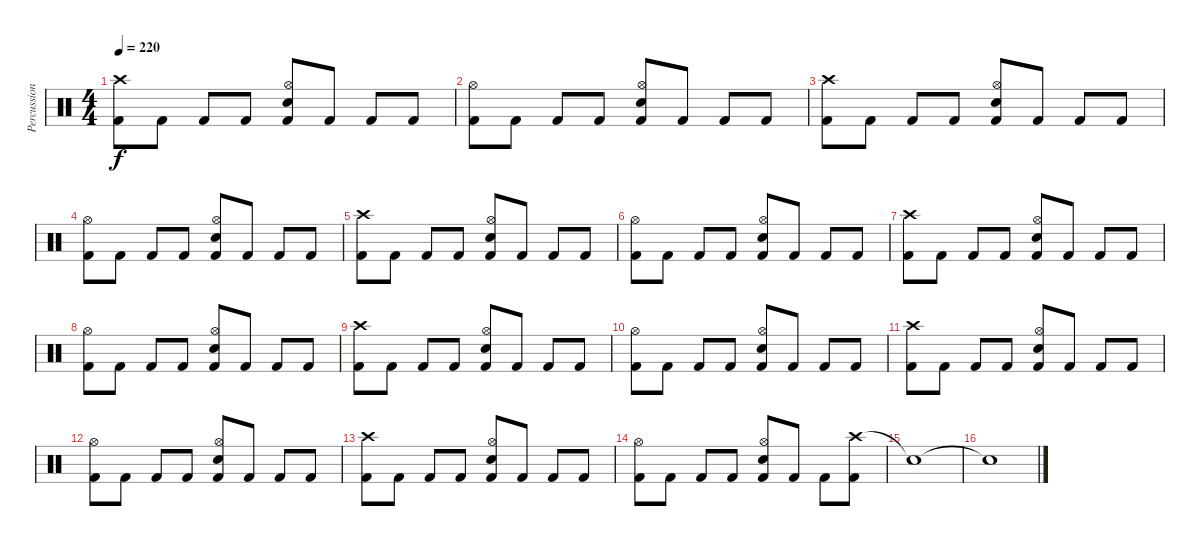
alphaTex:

\track ("Percussion" "Percussion") {instrument percussion}
\staff {score}
\articulation defaults
\ts (4 4)
\tempo 220
\clef neutral
\ks c
("Crash high (hit)" "Kick (hit) 2").8{dy f} "Kick (hit) 2".8 "Kick (hit) 2".8 "Kick (hit) 2".8 ("Hi-Hat (open)" "Electric Snare (hit)" "Kick (hit) 2").8 "Kick (hit) 2".8 "Kick (hit) 2".8 "Kick (hit) 2".8 |
("Hi-Hat (open)" "Kick (hit) 2").8 "Kick (hit) 2".8 "Kick (hit) 2".8 "Kick (hit) 2".8 ("Hi-Hat (open)" "Electric Snare (hit)" "Kick (hit) 2").8 "Kick (hit) 2".8 "Kick (hit) 2".8 "Kick (hit) 2".8 |
("Crash high (hit)" "Kick (hit) 2").8 "Kick (hit) 2".8 "Kick (hit) 2".8 "Kick (hit) 2".8 ("Hi-Hat (open)" "Electric Snare (hit)" "Kick (hit) 2").8 "Kick (hit) 2".8 "Kick (hit) 2".8 "Kick (hit) 2".8 |
("Hi-Hat (open)" "Kick (hit) 2").8 "Kick (hit) 2".8 "Kick (hit) 2".8 "Kick (hit) 2".8 ("Hi-Hat (open)" "Electric Snare (hit)" "Kick (hit) 2").8 "Kick (hit) 2".8 "Kick (hit) 2".8 "Kick (hit) 2".8 |
("Crash high (hit)" "Kick (hit) 2").8 "Kick (hit) 2".8 "Kick (hit) 2".8 "Kick (hit) 2".8 ("Hi-Hat (open)" "Electric Snare (hit)" "Kick (hit) 2").8 "Kick (hit) 2".8 "Kick (hit) 2".8 "Kick (hit) 2".8 |
("Hi-Hat (open)" "Kick (hit) 2").8 "Kick (hit) 2".8 "Kick (hit) 2".8 "Kick (hit) 2".8 ("Hi-Hat (open)" "Electric Snare (hit)" "Kick (hit) 2").8 "Kick (hit) 2".8 "Kick (hit) 2".8 "Kick (hit) 2".8 |
("Crash high (hit)" "Kick (hit) 2").8 "Kick (hit) 2".8 "Kick (hit) 2".8 "Kick (hit) 2".8 ("Hi-Hat (open)" "Electric Snare (hit)" "Kick (hit) 2").8 "Kick (hit) 2".8 "Kick (hit) 2".8 "Kick (hit) 2".8 |
("Hi-Hat (open)" "Kick (hit) 2").8 "Kick (hit) 2".8 "Kick (hit) 2".8 "Kick (hit) 2".8 ("Hi-Hat (open)" "Electric Snare (hit)" "Kick (hit) 2").8 "Kick (hit) 2".8 "Kick (hit) 2".8 "Kick (hit) 2".8 |
("Crash high (hit)" "Kick (hit) 2").8 "Kick (hit) 2".8 "Kick (hit) 2".8 "Kick (hit) 2".8 ("Hi-Hat (open)" "Electric Snare (hit)" "Kick (hit) 2").8 "Kick (hit) 2".8 "Kick (hit) 2".8 "Kick (hit) 2".8 |
("Hi-Hat (open)" "Kick (hit) 2").8 "Kick (hit) 2".8 "Kick (hit) 2".8 "Kick (hit) 2".8 ("Hi-Hat (open)" "Electric Snare (hit)" "Kick (hit) 2").8 "Kick (hit) 2".8 "Kick (hit) 2".8 "Kick (hit) 2".8 |
("Crash high (hit)" "Kick (hit) 2").8 "Kick (hit) 2".8 "Kick (hit) 2".8 "Kick (hit) 2".8 ("Hi-Hat (open)" "Electric Snare (hit)" "Kick (hit) 2").8 "Kick (hit) 2".8 "Kick (hit) 2".8 "Kick (hit) 2".8 |
("Hi-Hat (open)" "Kick (hit) 2").8 "Kick (hit) 2".8 "Kick (hit) 2".8 "Kick (hit) 2".8 ("Hi-Hat (open)" "Electric Snare (hit)" "Kick (hit) 2").8 "Kick (hit) 2".8 "Kick (hit) 2".8 "Kick (hit) 2".8 |
("Crash high (hit)" "Kick (hit) 2").8 "Kick (hit) 2".8 "Kick (hit) 2".8 "Kick (hit) 2".8 ("Hi-Hat (open)" "Electric Snare (hit)" "Kick (hit) 2").8 "Kick (hit) 2".8 "Kick (hit) 2".8 "Kick (hit) 2".8 |
("Hi-Hat (open)" "Kick (hit) 2").8 "Kick (hit) 2".8 "Kick (hit) 2".8 "Kick (hit) 2".8 ("Hi-Hat (open)" "Electric Snare (hit)" "Kick (hit) 2").8 "Kick (hit) 2".8 "Kick (hit) 2".8 ("Crash high (hit)" "Kick (hit) 2").8 |
"Snare (hit)"{t}.1 |
"Snare (hit)"{t}.1
